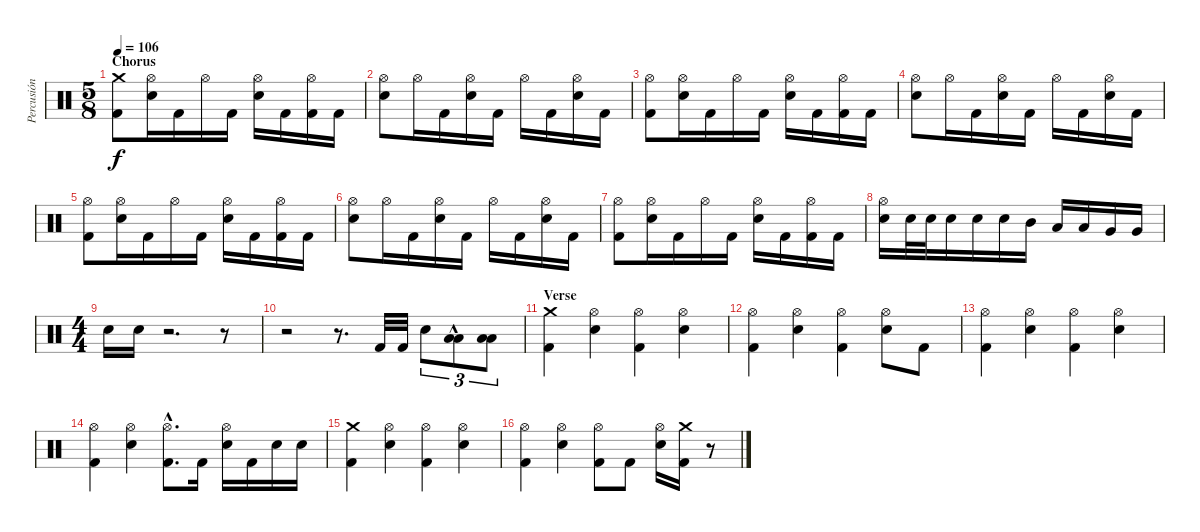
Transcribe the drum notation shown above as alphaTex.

\track ("Percusión" "Percusión") {instrument percussion}
\staff {score}
\articulation defaults
\ts (5 8)
\section ("" "Chorus")
\tempo 106
\clef neutral
\ks c
("Kick (hit) 2" "Crash medium (hit)").8{dy f} ("Electric Snare (hit)" "Hi-Hat (open)").16 "Kick (hit) 2".16 "Hi-Hat (open)".16 "Kick (hit) 2".16 ("Electric Snare (hit)" "Hi-Hat (open)").16 "Kick (hit) 2".16 ("Kick (hit) 2" "Hi-Hat (open)").16 "Kick (hit) 2".16 |
("Electric Snare (hit)" "Hi-Hat (open)").8 "Hi-Hat (open)".16 "Kick (hit) 2".16 ("Electric Snare (hit)" "Hi-Hat (open)").16 "Kick (hit) 2".16 "Hi-Hat (open)".16 "Kick (hit) 2".16 ("Electric Snare (hit)" "Hi-Hat (open)").16 "Kick (hit) 2".16 |
("Kick (hit) 2" "Hi-Hat (open)").8 ("Electric Snare (hit)" "Hi-Hat (open)").16 "Kick (hit) 2".16 "Hi-Hat (open)".16 "Kick (hit) 2".16 ("Electric Snare (hit)" "Hi-Hat (open)").16 "Kick (hit) 2".16 ("Kick (hit) 2" "Hi-Hat (open)").16 "Kick (hit) 2".16 |
("Electric Snare (hit)" "Hi-Hat (open)").8 "Hi-Hat (open)".16 "Kick (hit) 2".16 ("Electric Snare (hit)" "Hi-Hat (open)").16 "Kick (hit) 2".16 "Hi-Hat (open)".16 "Kick (hit) 2".16 ("Electric Snare (hit)" "Hi-Hat (open)").16 "Kick (hit) 2".16 |
("Kick (hit) 2" "Hi-Hat (open)").8 ("Electric Snare (hit)" "Hi-Hat (open)").16 "Kick (hit) 2".16 "Hi-Hat (open)".16 "Kick (hit) 2".16 ("Electric Snare (hit)" "Hi-Hat (open)").16 "Kick (hit) 2".16 ("Kick (hit) 2" "Hi-Hat (open)").16 "Kick (hit) 2".16 |
("Electric Snare (hit)" "Hi-Hat (open)").8 "Hi-Hat (open)".16 "Kick (hit) 2".16 ("Electric Snare (hit)" "Hi-Hat (open)").16 "Kick (hit) 2".16 "Hi-Hat (open)".16 "Kick (hit) 2".16 ("Electric Snare (hit)" "Hi-Hat (open)").16 "Kick (hit) 2".16 |
("Kick (hit) 2" "Hi-Hat (open)").8 ("Electric Snare (hit)" "Hi-Hat (open)").16 "Kick (hit) 2".16 "Hi-Hat (open)".16 "Kick (hit) 2".16 ("Electric Snare (hit)" "Hi-Hat (open)").16 "Kick (hit) 2".16 ("Kick (hit) 2" "Hi-Hat (open)").16 "Kick (hit) 2".16 |
("Electric Snare (hit)" "Hi-Hat (open)").16 "Electric Snare (hit)".32 "Electric Snare (hit)".32 "Electric Snare (hit)".16 "Electric Snare (hit)".16 "Electric Snare (hit)".16 "Mid Tom (hit)".16 "Low Tom (hit)".16 "Low Tom (hit)".16 "Very Low Tom (hit)".16 "Very Low Tom (hit)".16 |
\ts (4 4)
"Electric Snare (hit)".16 "Electric Snare (hit)".16 r.2{d} r.8 |
r.2 r.8{d} "Kick (hit) 2".32 "Kick (hit) 2".32 "Electric Snare (hit)".8{tu (3 2)} ("Low Tom (hit)" "Low Floor Tom (hit)"{hac}).8{tu (3 2)} ("Low Tom (hit)" "Low Floor Tom (hit)").8{tu (3 2)} |
\section ("" "Verse")
("Crash medium (hit)" "Kick (hit) 2").4 ("Hi-Hat (open)" "Electric Snare (hit)").4 ("Hi-Hat (open)" "Kick (hit) 2").4 ("Hi-Hat (open)" "Electric Snare (hit)").4 |
("Hi-Hat (open)" "Kick (hit) 2").4 ("Hi-Hat (open)" "Electric Snare (hit)").4 ("Hi-Hat (open)" "Kick (hit) 2").4 ("Hi-Hat (open)" "Electric Snare (hit)").8 "Kick (hit) 2".8 |
("Hi-Hat (open)" "Kick (hit) 2").4 ("Hi-Hat (open)" "Electric Snare (hit)").4 ("Hi-Hat (open)" "Kick (hit) 2").4 ("Hi-Hat (open)" "Electric Snare (hit)").4 |
("Hi-Hat (open)" "Kick (hit) 2").4 ("Hi-Hat (open)" "Electric Snare (hit)").4 ("Hi-Hat (open)" "Kick (hit) 2"{hac}).8{d} "Kick (hit) 2".16 ("Hi-Hat (open)" "Electric Snare (hit)").16 "Kick (hit) 2".16 "Electric Snare (hit)".16 "Electric Snare (hit)".16 |
("Crash medium (hit)" "Kick (hit) 2").4 ("Hi-Hat (open)" "Electric Snare (hit)").4 ("Hi-Hat (open)" "Kick (hit) 2").4 ("Hi-Hat (open)" "Electric Snare (hit)").4 |
("Hi-Hat (open)" "Kick (hit) 2").4 ("Hi-Hat (open)" "Electric Snare (hit)").4 ("Hi-Hat (open)" "Kick (hit) 2").8 "Kick (hit) 2".8 ("Hi-Hat (open)" "Electric Snare (hit)").16 ("Crash medium (hit)" "Kick (hit) 2").16 r.8
